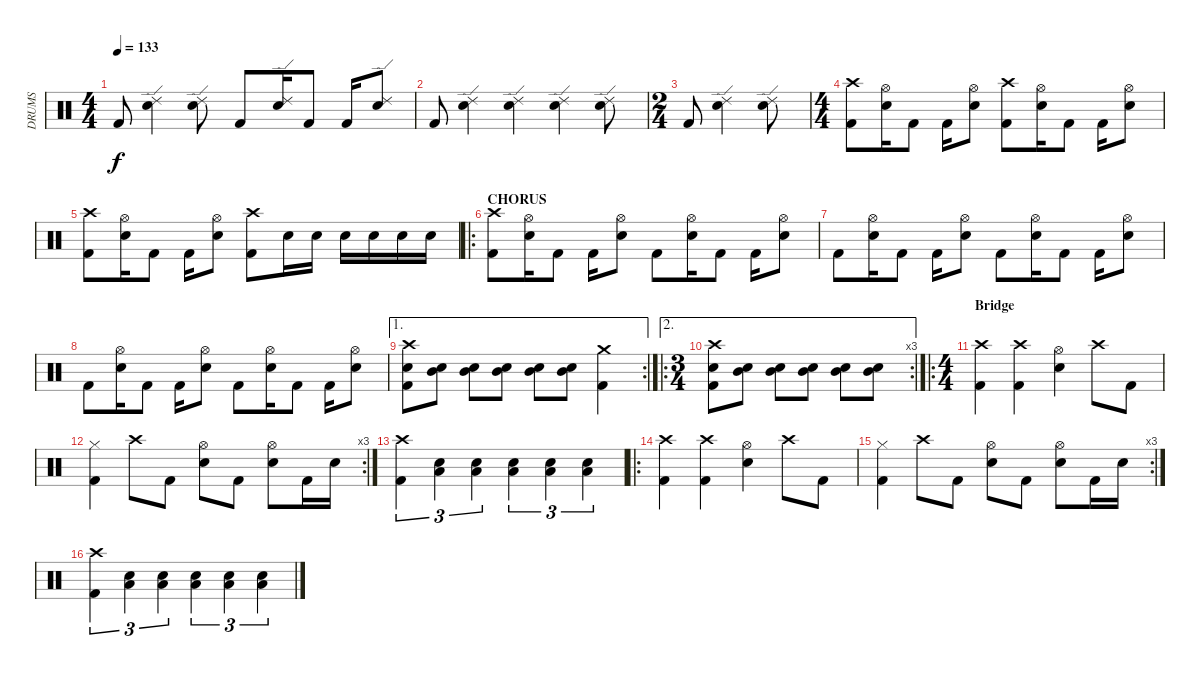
\track ("DRUMS" "DRUMS") {instrument percussion}
\staff {score}
\articulation defaults
\ts (4 4)
\tempo 133
\clef neutral
\ks c "Kick (hit) 2".8{dy f}
("Ride (edge) 2" "Electric Snare (hit)").4 ("Ride (edge) 2" "Electric Snare (hit)").8 "Kick (hit) 2".8 ("Ride (edge) 2" "Electric Snare (hit)").16 "Kick (hit) 2".8 "Kick (hit) 2".16 ("Ride (edge) 2" "Electric Snare (hit)").8 |
"Kick (hit) 2".8 ("Ride (edge) 2" "Electric Snare (hit)").4 ("Ride (edge) 2" "Electric Snare (hit)").4 ("Ride (edge) 2" "Electric Snare (hit)").4 ("Ride (edge) 2" "Electric Snare (hit)").8 |
\ts (2 4)
"Kick (hit) 2".8 ("Ride (edge) 2" "Electric Snare (hit)").4 ("Ride (edge) 2" "Electric Snare (hit)").8 |
\ts (4 4)
("Crash high (hit)" "Kick (hit) 2").8 ("Hi-Hat (open)" "Electric Snare (hit)").16 "Kick (hit) 2".8 "Kick (hit) 2".16 ("Hi-Hat (open)" "Electric Snare (hit)").8 ("Crash high (hit)" "Kick (hit) 2").8 ("Hi-Hat (open)" "Electric Snare (hit)").16 "Kick (hit) 2".8 "Kick (hit) 2".16 ("Hi-Hat (open)" "Electric Snare (hit)").8 |
("Crash high (hit)" "Kick (hit) 2").8 ("Hi-Hat (open)" "Electric Snare (hit)").16 "Kick (hit) 2".8 "Kick (hit) 2".16 ("Hi-Hat (open)" "Electric Snare (hit)").8 ("Crash high (hit)" "Kick (hit) 2").8 "Electric Snare (hit)".16 "Electric Snare (hit)".16 "Electric Snare (hit)".16 "Electric Snare (hit)".16 "Electric Snare (hit)".16 "Electric Snare (hit)".16 |
\ro
\section ("" "CHORUS")
("Crash high (hit)" "Kick (hit) 2").8 ("Hi-Hat (open)" "Electric Snare (hit)").16 "Kick (hit) 2".8 "Kick (hit) 2".16 ("Hi-Hat (open)" "Electric Snare (hit)").8 "Kick (hit) 2".8 ("Hi-Hat (open)" "Electric Snare (hit)").16 "Kick (hit) 2".8 "Kick (hit) 2".16 ("Hi-Hat (open)" "Electric Snare (hit)").8 |
"Kick (hit) 2".8 ("Hi-Hat (open)" "Electric Snare (hit)").16 "Kick (hit) 2".8 "Kick (hit) 2".16 ("Hi-Hat (open)" "Electric Snare (hit)").8 "Kick (hit) 2".8 ("Hi-Hat (open)" "Electric Snare (hit)").16 "Kick (hit) 2".8 "Kick (hit) 2".16 ("Hi-Hat (open)" "Electric Snare (hit)").8 |
"Kick (hit) 2".8 ("Hi-Hat (open)" "Electric Snare (hit)").16 "Kick (hit) 2".8 "Kick (hit) 2".16 ("Hi-Hat (open)" "Electric Snare (hit)").8 "Kick (hit) 2".8 ("Hi-Hat (open)" "Electric Snare (hit)").16 "Kick (hit) 2".8 "Kick (hit) 2".16 ("Hi-Hat (open)" "Electric Snare (hit)").8 |
\ae 1
\rc 2
("Crash high (hit)" "Electric Snare (hit)" "Kick (hit) 2").8 ("Mid Tom (hit)" "Electric Snare (hit)").8 ("Mid Tom (hit)" "Electric Snare (hit)").8 ("Mid Tom (hit)" "Electric Snare (hit)").8 ("Mid Tom (hit)" "Electric Snare (hit)").8 ("Mid Tom (hit)" "Electric Snare (hit)").8 ("Crash medium (hit)" "Kick (hit) 2").4 |
\ae 2
\ro
\rc 3
\ts (3 4)
("Crash high (hit)" "Electric Snare (hit)" "Kick (hit) 2").8 ("Mid Tom (hit)" "Electric Snare (hit)").8 ("Mid Tom (hit)" "Electric Snare (hit)").8 ("Mid Tom (hit)" "Electric Snare (hit)").8 ("Mid Tom (hit)" "Electric Snare (hit)").8 ("Mid Tom (hit)" "Electric Snare (hit)").8 |
\ro
\ts (4 4)
\section ("" "Bridge")
("Crash high (hit)" "Kick (hit) 2").4 ("Crash high (hit)" "Kick (hit) 2").4 ("Hi-Hat (open)" "Electric Snare (hit)").4 "Crash high (hit)".8 "Kick (hit) 2".8 |
\rc 3
("Hi-Hat (closed)" "Kick (hit) 2").4 "Crash high (hit)".8 "Kick (hit) 2".8 ("Hi-Hat (open)" "Electric Snare (hit)").8 "Kick (hit) 2".8 ("Hi-Hat (open)" "Electric Snare (hit)").8 "Kick (hit) 2".16 "Electric Snare (hit)".16 |
("Crash high (hit)" "Kick (hit) 2").4{tu (3 2)} ("Low Floor Tom (hit)" "Electric Snare (hit)").4{tu (3 2)} ("Low Floor Tom (hit)" "Electric Snare (hit)").4{tu (3 2)} ("Low Floor Tom (hit)" "Electric Snare (hit)").4{tu (3 2)} ("Low Floor Tom (hit)" "Electric Snare (hit)").4{tu (3 2)} ("Low Floor Tom (hit)" "Electric Snare (hit)").4{tu (3 2)} |
\ro
("Crash high (hit)" "Kick (hit) 2").4 ("Crash high (hit)" "Kick (hit) 2").4 ("Hi-Hat (open)" "Electric Snare (hit)").4 "Crash high (hit)".8 "Kick (hit) 2".8 |
\rc 3
("Hi-Hat (closed)" "Kick (hit) 2").4 "Crash high (hit)".8 "Kick (hit) 2".8 ("Hi-Hat (open)" "Electric Snare (hit)").8 "Kick (hit) 2".8 ("Hi-Hat (open)" "Electric Snare (hit)").8 "Kick (hit) 2".16 "Electric Snare (hit)".16 |
("Crash high (hit)" "Kick (hit) 2").4{tu (3 2)} ("Low Floor Tom (hit)" "Electric Snare (hit)").4{tu (3 2)} ("Low Floor Tom (hit)" "Electric Snare (hit)").4{tu (3 2)} ("Low Floor Tom (hit)" "Electric Snare (hit)").4{tu (3 2)} ("Low Floor Tom (hit)" "Electric Snare (hit)").4{tu (3 2)} ("Low Floor Tom (hit)" "Electric Snare (hit)").4{tu (3 2)}
